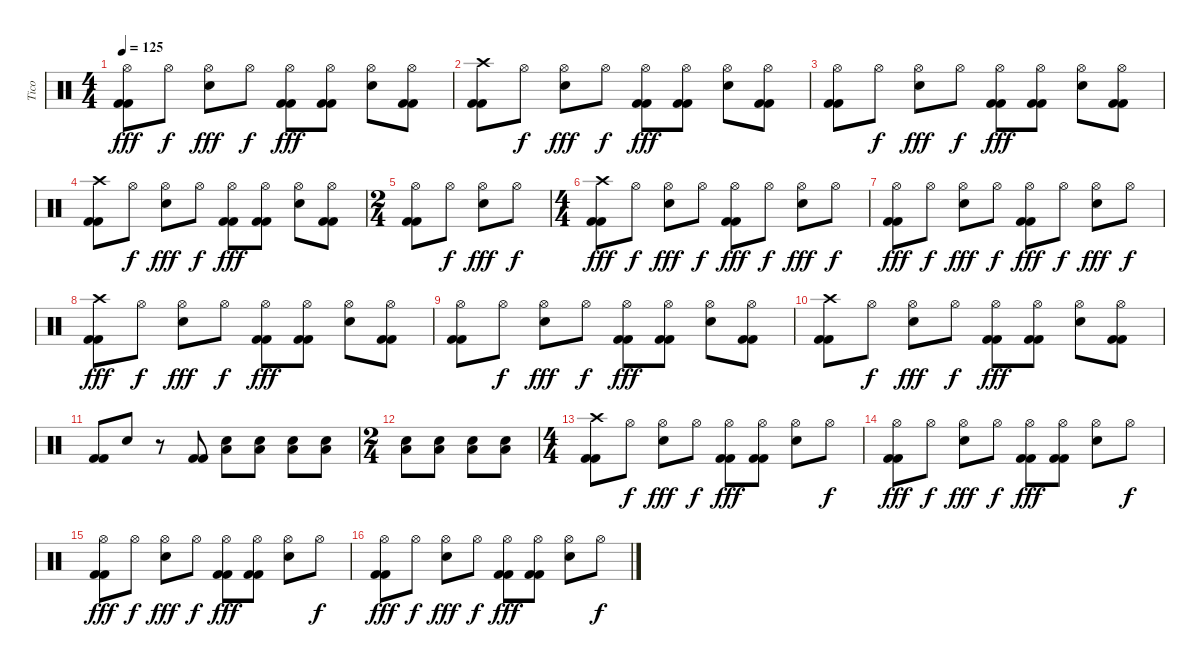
\track ("Tico" "Tico") {instrument percussion}
\staff {score}
\articulation defaults
\ts (4 4)
\tempo 125
\clef neutral
\ks c
("Hi-Hat (open)" "Kick (hit) 2" "Kick (hit) 2").8{dy fff} "Hi-Hat (open)".8{dy f} ("Hi-Hat (open)" "Snare (hit) 2").8{dy fff} "Hi-Hat (open)".8{dy f} ("Hi-Hat (open)" "Kick (hit) 2" "Kick (hit) 2").8{dy fff} ("Hi-Hat (open)" "Kick (hit) 2" "Kick (hit) 2").8 ("Hi-Hat (open)" "Snare (hit) 2").8 ("Hi-Hat (open)" "Kick (hit) 2" "Kick (hit) 2").8 |
("Crash high (hit)" "Kick (hit) 2" "Kick (hit) 2").8 "Hi-Hat (open)".8{dy f} ("Hi-Hat (open)" "Snare (hit) 2").8{dy fff} "Hi-Hat (open)".8{dy f} ("Hi-Hat (open)" "Kick (hit) 2" "Kick (hit) 2").8{dy fff} ("Hi-Hat (open)" "Kick (hit) 2" "Kick (hit) 2").8 ("Hi-Hat (open)" "Snare (hit) 2").8 ("Hi-Hat (open)" "Kick (hit) 2" "Kick (hit) 2").8 |
("Hi-Hat (open)" "Kick (hit) 2" "Kick (hit) 2").8 "Hi-Hat (open)".8{dy f} ("Hi-Hat (open)" "Snare (hit) 2").8{dy fff} "Hi-Hat (open)".8{dy f} ("Hi-Hat (open)" "Kick (hit) 2" "Kick (hit) 2").8{dy fff} ("Hi-Hat (open)" "Kick (hit) 2" "Kick (hit) 2").8 ("Hi-Hat (open)" "Snare (hit) 2").8 ("Hi-Hat (open)" "Kick (hit) 2" "Kick (hit) 2").8 |
("Crash high (hit)" "Kick (hit) 2" "Kick (hit) 2").8 "Hi-Hat (open)".8{dy f} ("Hi-Hat (open)" "Snare (hit) 2").8{dy fff} "Hi-Hat (open)".8{dy f} ("Hi-Hat (open)" "Kick (hit) 2" "Kick (hit) 2").8{dy fff} ("Hi-Hat (open)" "Kick (hit) 2" "Kick (hit) 2").8 ("Hi-Hat (open)" "Snare (hit) 2").8 ("Hi-Hat (open)" "Kick (hit) 2" "Kick (hit) 2").8 |
\ts (2 4)
("Hi-Hat (open)" "Kick (hit) 2" "Kick (hit) 2").8 "Hi-Hat (open)".8{dy f} ("Hi-Hat (open)" "Snare (hit) 2").8{dy fff} "Hi-Hat (open)".8{dy f} |
\ts (4 4)
("Crash high (hit)" "Kick (hit) 2" "Kick (hit) 2").8{dy fff} "Hi-Hat (open)".8{dy f} ("Hi-Hat (open)" "Snare (hit) 2").8{dy fff} "Hi-Hat (open)".8{dy f} ("Hi-Hat (open)" "Kick (hit) 2" "Kick (hit) 2").8{dy fff} "Hi-Hat (open)".8{dy f} ("Hi-Hat (open)" "Snare (hit) 2").8{dy fff} "Hi-Hat (open)".8{dy f} |
("Hi-Hat (open)" "Kick (hit) 2" "Kick (hit) 2").8{dy fff} "Hi-Hat (open)".8{dy f} ("Hi-Hat (open)" "Snare (hit) 2").8{dy fff} "Hi-Hat (open)".8{dy f} ("Hi-Hat (open)" "Kick (hit) 2" "Kick (hit) 2").8{dy fff} "Hi-Hat (open)".8{dy f} ("Hi-Hat (open)" "Snare (hit) 2").8{dy fff} "Hi-Hat (open)".8{dy f} |
("Crash high (hit)" "Kick (hit) 2" "Kick (hit) 2").8{dy fff} "Hi-Hat (open)".8{dy f} ("Hi-Hat (open)" "Snare (hit) 2").8{dy fff} "Hi-Hat (open)".8{dy f} ("Hi-Hat (open)" "Kick (hit) 2" "Kick (hit) 2").8{dy fff} ("Hi-Hat (open)" "Kick (hit) 2" "Kick (hit) 2").8 ("Hi-Hat (open)" "Snare (hit) 2").8 ("Hi-Hat (open)" "Kick (hit) 2" "Kick (hit) 2").8 |
("Hi-Hat (open)" "Kick (hit) 2" "Kick (hit) 2").8 "Hi-Hat (open)".8{dy f} ("Hi-Hat (open)" "Snare (hit) 2").8{dy fff} "Hi-Hat (open)".8{dy f} ("Hi-Hat (open)" "Kick (hit) 2" "Kick (hit) 2").8{dy fff} ("Hi-Hat (open)" "Kick (hit) 2" "Kick (hit) 2").8 ("Hi-Hat (open)" "Snare (hit) 2").8 ("Hi-Hat (open)" "Kick (hit) 2" "Kick (hit) 2").8 |
("Crash high (hit)" "Kick (hit) 2" "Kick (hit) 2").8 "Hi-Hat (open)".8{dy f} ("Hi-Hat (open)" "Snare (hit) 2").8{dy fff} "Hi-Hat (open)".8{dy f} ("Hi-Hat (open)" "Kick (hit) 2" "Kick (hit) 2").8{dy fff} ("Hi-Hat (open)" "Kick (hit) 2" "Kick (hit) 2").8 ("Hi-Hat (open)" "Snare (hit) 2").8 ("Hi-Hat (open)" "Kick (hit) 2" "Kick (hit) 2").8 |
("Kick (hit) 2" "Kick (hit) 2").8 "Snare (hit) 2".8 r.8 ("Kick (hit) 2" "Kick (hit) 2").8 ("Snare (hit) 2" "Low Tom (hit)").8 ("Snare (hit) 2" "Low Tom (hit)").8 ("Snare (hit) 2" "Low Tom (hit)").8 ("Snare (hit) 2" "Low Tom (hit)").8 |
\ts (2 4)
("Snare (hit) 2" "Low Tom (hit)").8 ("Snare (hit) 2" "Low Tom (hit)").8 ("Snare (hit) 2" "Low Tom (hit)").8 ("Snare (hit) 2" "Low Tom (hit)").8 |
\ts (4 4)
("Crash high (hit)" "Kick (hit) 2" "Kick (hit) 2").8 "Hi-Hat (open)".8{dy f} ("Hi-Hat (open)" "Snare (hit) 2").8{dy fff} "Hi-Hat (open)".8{dy f} ("Hi-Hat (open)" "Kick (hit) 2" "Kick (hit) 2").8{dy fff} ("Hi-Hat (open)" "Kick (hit) 2" "Kick (hit) 2").8 ("Hi-Hat (open)" "Snare (hit) 2").8 "Hi-Hat (open)".8{dy f} |
("Hi-Hat (open)" "Kick (hit) 2" "Kick (hit) 2").8{dy fff} "Hi-Hat (open)".8{dy f} ("Hi-Hat (open)" "Snare (hit) 2").8{dy fff} "Hi-Hat (open)".8{dy f} ("Hi-Hat (open)" "Kick (hit) 2" "Kick (hit) 2").8{dy fff} ("Hi-Hat (open)" "Kick (hit) 2" "Kick (hit) 2").8 ("Hi-Hat (open)" "Snare (hit) 2").8 "Hi-Hat (open)".8{dy f} |
("Hi-Hat (open)" "Kick (hit) 2" "Kick (hit) 2").8{dy fff} "Hi-Hat (open)".8{dy f} ("Hi-Hat (open)" "Snare (hit) 2").8{dy fff} "Hi-Hat (open)".8{dy f} ("Hi-Hat (open)" "Kick (hit) 2" "Kick (hit) 2").8{dy fff} ("Hi-Hat (open)" "Kick (hit) 2" "Kick (hit) 2").8 ("Hi-Hat (open)" "Snare (hit) 2").8 "Hi-Hat (open)".8{dy f} |
("Hi-Hat (open)" "Kick (hit) 2" "Kick (hit) 2").8{dy fff} "Hi-Hat (open)".8{dy f} ("Hi-Hat (open)" "Snare (hit) 2").8{dy fff} "Hi-Hat (open)".8{dy f} ("Hi-Hat (open)" "Kick (hit) 2" "Kick (hit) 2").8{dy fff} ("Hi-Hat (open)" "Kick (hit) 2" "Kick (hit) 2").8 ("Hi-Hat (open)" "Snare (hit) 2").8 "Hi-Hat (open)".8{dy f}
